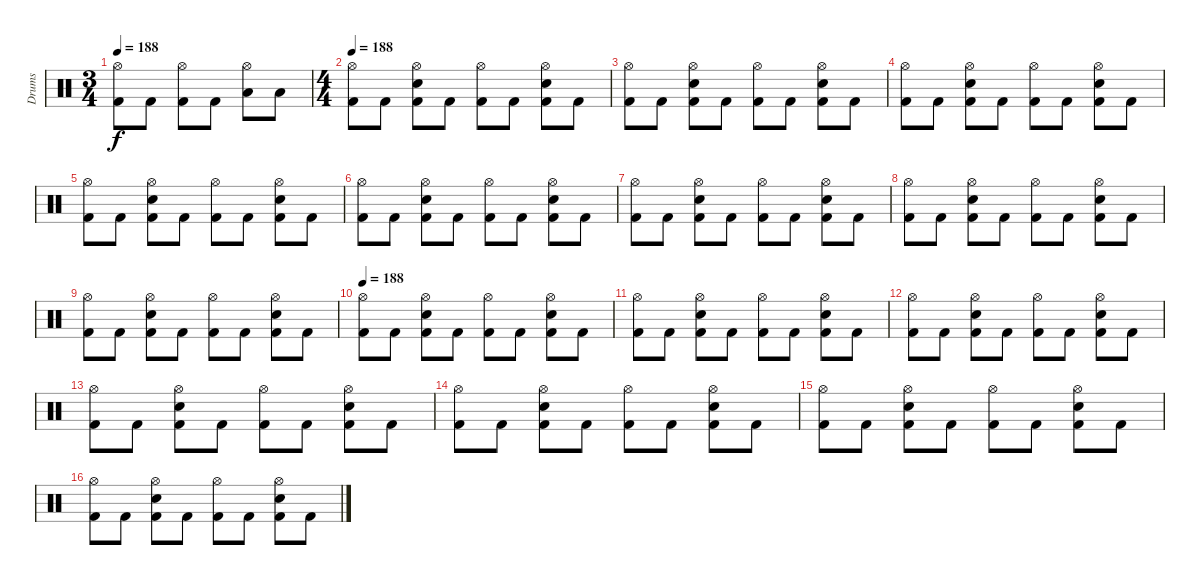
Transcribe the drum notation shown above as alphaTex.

\track ("Drums" "Drums") {instrument percussion}
\staff {score}
\articulation defaults
\ts (3 4)
\tempo 188
\clef neutral
\ks c
("Hi-Hat (open)" "Kick (hit) 2").8{dy f} "Kick (hit) 2".8 ("Hi-Hat (open)" "Kick (hit) 2").8 "Kick (hit) 2".8 ("Hi-Hat (open)" "Low Floor Tom (hit)").8 "Low Floor Tom (hit)".8 |
\ts (4 4)
\tempo 188
("Hi-Hat (open)" "Kick (hit) 2").8 "Kick (hit) 2".8 ("Electric Snare (hit)" "Hi-Hat (open)" "Kick (hit) 2").8 "Kick (hit) 2".8 ("Hi-Hat (open)" "Kick (hit) 2").8 "Kick (hit) 2".8 ("Electric Snare (hit)" "Hi-Hat (open)" "Kick (hit) 2").8 "Kick (hit) 2".8 |
("Hi-Hat (open)" "Kick (hit) 2").8 "Kick (hit) 2".8 ("Electric Snare (hit)" "Hi-Hat (open)" "Kick (hit) 2").8 "Kick (hit) 2".8 ("Hi-Hat (open)" "Kick (hit) 2").8 "Kick (hit) 2".8 ("Electric Snare (hit)" "Hi-Hat (open)" "Kick (hit) 2").8 "Kick (hit) 2".8 |
("Hi-Hat (open)" "Kick (hit) 2").8 "Kick (hit) 2".8 ("Electric Snare (hit)" "Hi-Hat (open)" "Kick (hit) 2").8 "Kick (hit) 2".8 ("Hi-Hat (open)" "Kick (hit) 2").8 "Kick (hit) 2".8 ("Electric Snare (hit)" "Hi-Hat (open)" "Kick (hit) 2").8 "Kick (hit) 2".8 |
("Hi-Hat (open)" "Kick (hit) 2").8 "Kick (hit) 2".8 ("Electric Snare (hit)" "Hi-Hat (open)" "Kick (hit) 2").8 "Kick (hit) 2".8 ("Hi-Hat (open)" "Kick (hit) 2").8 "Kick (hit) 2".8 ("Electric Snare (hit)" "Hi-Hat (open)" "Kick (hit) 2").8 "Kick (hit) 2".8 |
("Hi-Hat (open)" "Kick (hit) 2").8 "Kick (hit) 2".8 ("Electric Snare (hit)" "Hi-Hat (open)" "Kick (hit) 2").8 "Kick (hit) 2".8 ("Hi-Hat (open)" "Kick (hit) 2").8 "Kick (hit) 2".8 ("Electric Snare (hit)" "Hi-Hat (open)" "Kick (hit) 2").8 "Kick (hit) 2".8 |
("Hi-Hat (open)" "Kick (hit) 2").8 "Kick (hit) 2".8 ("Electric Snare (hit)" "Hi-Hat (open)" "Kick (hit) 2").8 "Kick (hit) 2".8 ("Hi-Hat (open)" "Kick (hit) 2").8 "Kick (hit) 2".8 ("Electric Snare (hit)" "Hi-Hat (open)" "Kick (hit) 2").8 "Kick (hit) 2".8 |
("Hi-Hat (open)" "Kick (hit) 2").8 "Kick (hit) 2".8 ("Electric Snare (hit)" "Hi-Hat (open)" "Kick (hit) 2").8 "Kick (hit) 2".8 ("Hi-Hat (open)" "Kick (hit) 2").8 "Kick (hit) 2".8 ("Electric Snare (hit)" "Hi-Hat (open)" "Kick (hit) 2").8 "Kick (hit) 2".8 |
("Hi-Hat (open)" "Kick (hit) 2").8 "Kick (hit) 2".8 ("Electric Snare (hit)" "Hi-Hat (open)" "Kick (hit) 2").8 "Kick (hit) 2".8 ("Hi-Hat (open)" "Kick (hit) 2").8 "Kick (hit) 2".8 ("Electric Snare (hit)" "Hi-Hat (open)" "Kick (hit) 2").8 "Kick (hit) 2".8 |
\tempo 188
("Hi-Hat (open)" "Kick (hit) 2").8 "Kick (hit) 2".8 ("Electric Snare (hit)" "Hi-Hat (open)" "Kick (hit) 2").8 "Kick (hit) 2".8 ("Hi-Hat (open)" "Kick (hit) 2").8 "Kick (hit) 2".8 ("Electric Snare (hit)" "Hi-Hat (open)" "Kick (hit) 2").8 "Kick (hit) 2".8 |
("Hi-Hat (open)" "Kick (hit) 2").8 "Kick (hit) 2".8 ("Electric Snare (hit)" "Hi-Hat (open)" "Kick (hit) 2").8 "Kick (hit) 2".8 ("Hi-Hat (open)" "Kick (hit) 2").8 "Kick (hit) 2".8 ("Electric Snare (hit)" "Hi-Hat (open)" "Kick (hit) 2").8 "Kick (hit) 2".8 |
("Hi-Hat (open)" "Kick (hit) 2").8 "Kick (hit) 2".8 ("Electric Snare (hit)" "Hi-Hat (open)" "Kick (hit) 2").8 "Kick (hit) 2".8 ("Hi-Hat (open)" "Kick (hit) 2").8 "Kick (hit) 2".8 ("Electric Snare (hit)" "Hi-Hat (open)" "Kick (hit) 2").8 "Kick (hit) 2".8 |
("Hi-Hat (open)" "Kick (hit) 2").8 "Kick (hit) 2".8 ("Electric Snare (hit)" "Hi-Hat (open)" "Kick (hit) 2").8 "Kick (hit) 2".8 ("Hi-Hat (open)" "Kick (hit) 2").8 "Kick (hit) 2".8 ("Electric Snare (hit)" "Hi-Hat (open)" "Kick (hit) 2").8 "Kick (hit) 2".8 |
("Hi-Hat (open)" "Kick (hit) 2").8 "Kick (hit) 2".8 ("Electric Snare (hit)" "Hi-Hat (open)" "Kick (hit) 2").8 "Kick (hit) 2".8 ("Hi-Hat (open)" "Kick (hit) 2").8 "Kick (hit) 2".8 ("Electric Snare (hit)" "Hi-Hat (open)" "Kick (hit) 2").8 "Kick (hit) 2".8 |
("Hi-Hat (open)" "Kick (hit) 2").8 "Kick (hit) 2".8 ("Electric Snare (hit)" "Hi-Hat (open)" "Kick (hit) 2").8 "Kick (hit) 2".8 ("Hi-Hat (open)" "Kick (hit) 2").8 "Kick (hit) 2".8 ("Electric Snare (hit)" "Hi-Hat (open)" "Kick (hit) 2").8 "Kick (hit) 2".8 |
("Hi-Hat (open)" "Kick (hit) 2").8 "Kick (hit) 2".8 ("Electric Snare (hit)" "Hi-Hat (open)" "Kick (hit) 2").8 "Kick (hit) 2".8 ("Hi-Hat (open)" "Kick (hit) 2").8 "Kick (hit) 2".8 ("Electric Snare (hit)" "Hi-Hat (open)" "Kick (hit) 2").8 "Kick (hit) 2".8
